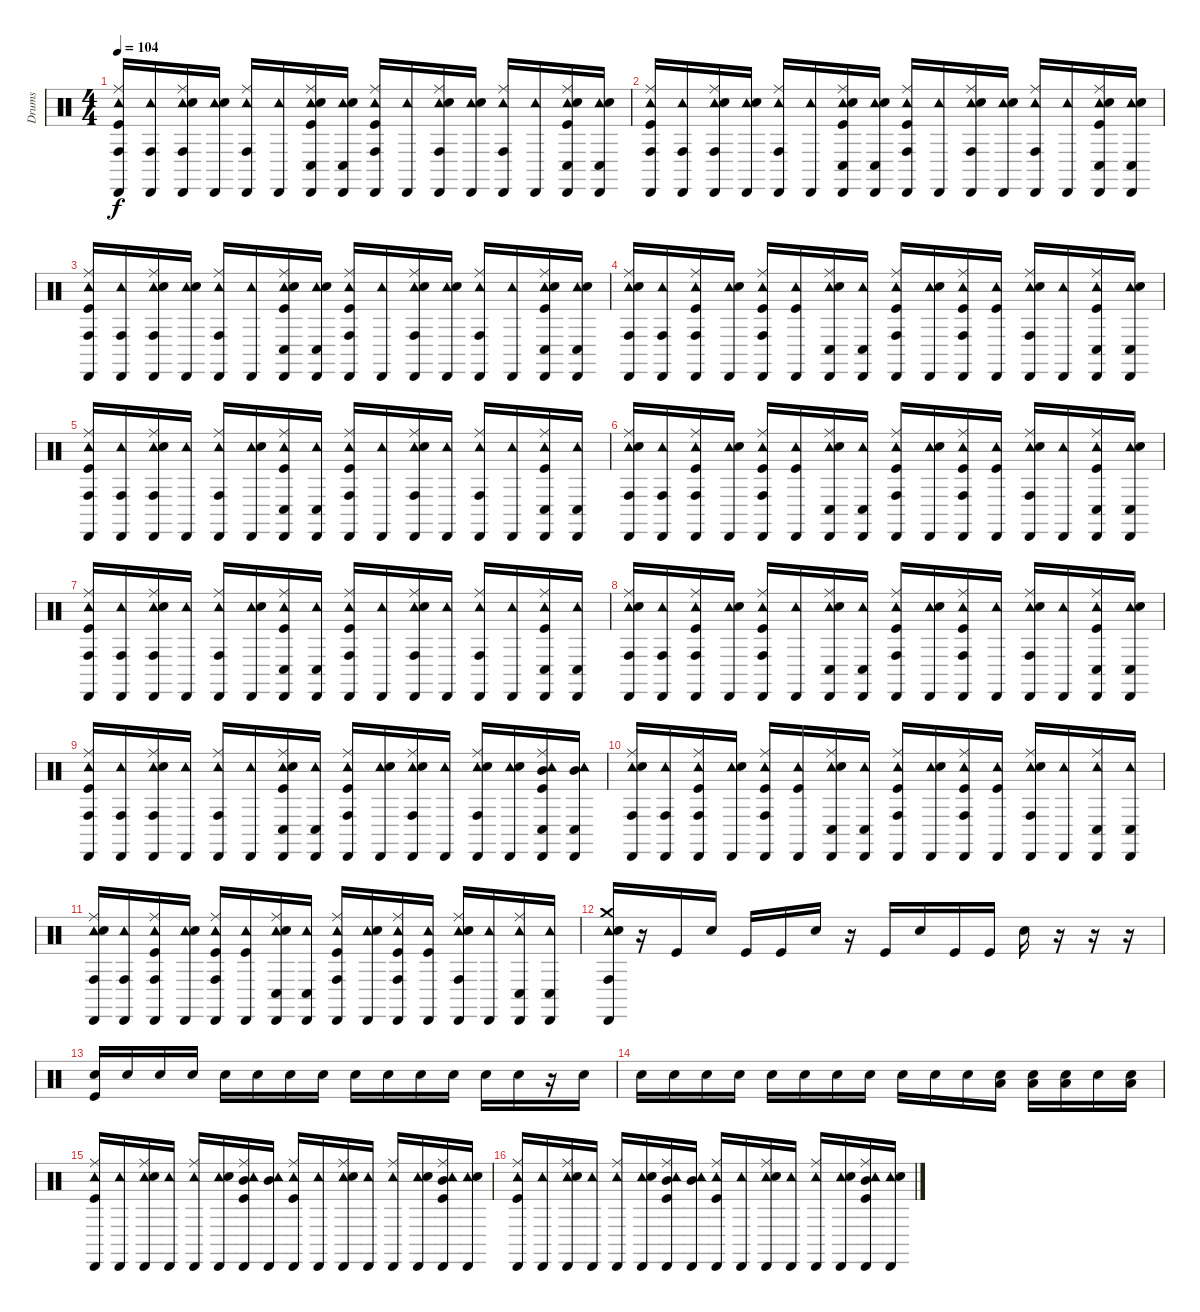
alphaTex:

\track ("Drums" "Drums") {instrument percussion}
\staff {score}
\articulation defaults
\ts (4 4)
\tempo 104
\clef neutral
\ks c
("Cabasa (hit)" "Conga high (hit)" "Tambourine (hit)" "Ride (middle)" "Kick (hit)").16{dy f} ("Cabasa (hit)" "Conga high (hit)" "Tambourine (hit)").16 ("Cabasa (hit)" "Conga high (hit)" "Tambourine (hit)" "Ride (middle)" "Electric Snare (hit)").16 ("Cabasa (hit)" "Tambourine (hit)" "Electric Snare (hit)").16 ("Cabasa (hit)" "Conga high (hit)" "Tambourine (hit)" "Ride (middle)").16 ("Cabasa (hit)" "Tambourine (hit)").16 ("Cabasa (hit)" "Conga low (hit)" "Tambourine (hit)" "Ride (middle)" "Electric Snare (hit)" "Kick (hit)").16 ("Cabasa (hit)" "Conga low (hit)" "Tambourine (hit)" "Electric Snare (hit)").16 ("Cabasa (hit)" "Conga high (hit)" "Tambourine (hit)" "Ride (middle)" "Kick (hit)").16 ("Cabasa (hit)" "Tambourine (hit)").16 ("Cabasa (hit)" "Conga high (hit)" "Tambourine (hit)" "Ride (middle)" "Electric Snare (hit)").16 ("Cabasa (hit)" "Tambourine (hit)" "Electric Snare (hit)").16 ("Cabasa (hit)" "Conga high (hit)" "Tambourine (hit)" "Ride (middle)").16 ("Cabasa (hit)" "Tambourine (hit)").16 ("Cabasa (hit)" "Conga low (hit)" "Tambourine (hit)" "Ride (middle)" "Electric Snare (hit)" "Kick (hit)").16 ("Cabasa (hit)" "Conga low (hit)" "Tambourine (hit)" "Electric Snare (hit)").16 |
("Cabasa (hit)" "Conga high (hit)" "Tambourine (hit)" "Ride (middle)" "Kick (hit)").16 ("Cabasa (hit)" "Conga high (hit)" "Tambourine (hit)").16 ("Cabasa (hit)" "Conga high (hit)" "Tambourine (hit)" "Ride (middle)" "Electric Snare (hit)").16 ("Cabasa (hit)" "Tambourine (hit)" "Electric Snare (hit)").16 ("Cabasa (hit)" "Conga high (hit)" "Tambourine (hit)" "Ride (middle)").16 ("Cabasa (hit)" "Tambourine (hit)").16 ("Cabasa (hit)" "Conga low (hit)" "Tambourine (hit)" "Ride (middle)" "Electric Snare (hit)" "Kick (hit)").16 ("Cabasa (hit)" "Conga low (hit)" "Tambourine (hit)" "Electric Snare (hit)").16 ("Cabasa (hit)" "Conga high (hit)" "Tambourine (hit)" "Ride (middle)" "Kick (hit)").16 ("Cabasa (hit)" "Tambourine (hit)").16 ("Cabasa (hit)" "Conga high (hit)" "Tambourine (hit)" "Ride (middle)" "Electric Snare (hit)").16 ("Cabasa (hit)" "Tambourine (hit)" "Electric Snare (hit)").16 ("Cabasa (hit)" "Conga high (hit)" "Tambourine (hit)" "Ride (middle)").16 ("Cabasa (hit)" "Tambourine (hit)").16 ("Cabasa (hit)" "Conga low (hit)" "Tambourine (hit)" "Ride (middle)" "Electric Snare (hit)" "Kick (hit)").16 ("Cabasa (hit)" "Conga low (hit)" "Tambourine (hit)" "Electric Snare (hit)").16 |
("Cabasa (hit)" "Conga high (hit)" "Tambourine (hit)" "Ride (middle)" "Kick (hit)").16 ("Cabasa (hit)" "Conga high (hit)" "Tambourine (hit)").16 ("Cabasa (hit)" "Conga high (hit)" "Tambourine (hit)" "Ride (middle)" "Electric Snare (hit)").16 ("Cabasa (hit)" "Tambourine (hit)" "Electric Snare (hit)").16 ("Cabasa (hit)" "Conga high (hit)" "Tambourine (hit)" "Ride (middle)").16 ("Cabasa (hit)" "Tambourine (hit)").16 ("Cabasa (hit)" "Conga low (hit)" "Tambourine (hit)" "Ride (middle)" "Electric Snare (hit)" "Kick (hit)").16 ("Cabasa (hit)" "Conga low (hit)" "Tambourine (hit)" "Electric Snare (hit)").16 ("Cabasa (hit)" "Conga high (hit)" "Tambourine (hit)" "Ride (middle)" "Kick (hit)").16 ("Cabasa (hit)" "Tambourine (hit)").16 ("Cabasa (hit)" "Conga high (hit)" "Tambourine (hit)" "Ride (middle)" "Electric Snare (hit)").16 ("Cabasa (hit)" "Tambourine (hit)" "Electric Snare (hit)").16 ("Cabasa (hit)" "Conga high (hit)" "Tambourine (hit)" "Ride (middle)").16 ("Cabasa (hit)" "Tambourine (hit)").16 ("Cabasa (hit)" "Conga low (hit)" "Tambourine (hit)" "Ride (middle)" "Electric Snare (hit)" "Kick (hit)").16 ("Cabasa (hit)" "Conga low (hit)" "Tambourine (hit)" "Electric Snare (hit)").16 |
("Cabasa (hit)" "Conga high (hit)" "Tambourine (hit)" "Ride (middle)" "Electric Snare (hit)").16 ("Cabasa (hit)" "Conga high (hit)" "Tambourine (hit)").16 ("Cabasa (hit)" "Conga high (hit)" "Tambourine (hit)" "Ride (middle)" "Kick (hit)").16 ("Cabasa (hit)" "Tambourine (hit)" "Electric Snare (hit)").16 ("Cabasa (hit)" "Conga high (hit)" "Tambourine (hit)" "Ride (middle)" "Kick (hit)").16 ("Cabasa (hit)" "Tambourine (hit)" "Kick (hit)").16 ("Cabasa (hit)" "Conga low (hit)" "Tambourine (hit)" "Ride (middle)" "Electric Snare (hit)").16 ("Cabasa (hit)" "Conga low (hit)" "Tambourine (hit)").16 ("Cabasa (hit)" "Conga high (hit)" "Tambourine (hit)" "Ride (middle)" "Kick (hit)").16 ("Cabasa (hit)" "Tambourine (hit)" "Electric Snare (hit)").16 ("Cabasa (hit)" "Conga high (hit)" "Tambourine (hit)" "Ride (middle)" "Kick (hit)").16 ("Cabasa (hit)" "Tambourine (hit)" "Kick (hit)").16 ("Cabasa (hit)" "Conga high (hit)" "Tambourine (hit)" "Ride (middle)" "Electric Snare (hit)").16 ("Cabasa (hit)" "Tambourine (hit)").16 ("Cabasa (hit)" "Conga low (hit)" "Tambourine (hit)" "Ride (middle)" "Kick (hit)").16 ("Cabasa (hit)" "Conga low (hit)" "Tambourine (hit)" "Electric Snare (hit)").16 |
("Cabasa (hit)" "Conga high (hit)" "Tambourine (hit)" "Ride (middle)" "Kick (hit)").16 ("Cabasa (hit)" "Conga high (hit)" "Tambourine (hit)").16 ("Cabasa (hit)" "Conga high (hit)" "Tambourine (hit)" "Ride (middle)" "Electric Snare (hit)").16 ("Cabasa (hit)" "Tambourine (hit)").16 ("Cabasa (hit)" "Conga high (hit)" "Tambourine (hit)" "Ride (middle)").16 ("Cabasa (hit)" "Tambourine (hit)" "Electric Snare (hit)").16 ("Cabasa (hit)" "Conga low (hit)" "Tambourine (hit)" "Ride (middle)" "Kick (hit)").16 ("Cabasa (hit)" "Conga low (hit)" "Tambourine (hit)").16 ("Cabasa (hit)" "Conga high (hit)" "Tambourine (hit)" "Ride (middle)" "Kick (hit)").16 ("Cabasa (hit)" "Tambourine (hit)").16 ("Cabasa (hit)" "Conga high (hit)" "Tambourine (hit)" "Ride (middle)" "Electric Snare (hit)").16 ("Cabasa (hit)" "Tambourine (hit)").16 ("Cabasa (hit)" "Conga high (hit)" "Tambourine (hit)" "Ride (middle)").16 ("Cabasa (hit)" "Tambourine (hit)").16 ("Cabasa (hit)" "Conga low (hit)" "Tambourine (hit)" "Ride (middle)" "Kick (hit)").16 ("Cabasa (hit)" "Conga low (hit)" "Tambourine (hit)").16 |
("Cabasa (hit)" "Conga high (hit)" "Tambourine (hit)" "Ride (middle)" "Electric Snare (hit)").16 ("Cabasa (hit)" "Conga high (hit)" "Tambourine (hit)").16 ("Cabasa (hit)" "Conga high (hit)" "Tambourine (hit)" "Ride (middle)" "Kick (hit)").16 ("Cabasa (hit)" "Tambourine (hit)" "Electric Snare (hit)").16 ("Cabasa (hit)" "Conga high (hit)" "Tambourine (hit)" "Ride (middle)" "Kick (hit)").16 ("Cabasa (hit)" "Tambourine (hit)" "Kick (hit)").16 ("Cabasa (hit)" "Conga low (hit)" "Tambourine (hit)" "Ride (middle)" "Electric Snare (hit)").16 ("Cabasa (hit)" "Conga low (hit)" "Tambourine (hit)").16 ("Cabasa (hit)" "Conga high (hit)" "Tambourine (hit)" "Ride (middle)" "Kick (hit)").16 ("Cabasa (hit)" "Tambourine (hit)" "Electric Snare (hit)").16 ("Cabasa (hit)" "Conga high (hit)" "Tambourine (hit)" "Ride (middle)" "Kick (hit)").16 ("Cabasa (hit)" "Tambourine (hit)" "Kick (hit)").16 ("Cabasa (hit)" "Conga high (hit)" "Tambourine (hit)" "Ride (middle)" "Electric Snare (hit)").16 ("Cabasa (hit)" "Tambourine (hit)").16 ("Cabasa (hit)" "Conga low (hit)" "Tambourine (hit)" "Ride (middle)" "Kick (hit)").16 ("Cabasa (hit)" "Conga low (hit)" "Tambourine (hit)" "Electric Snare (hit)").16 |
("Cabasa (hit)" "Conga high (hit)" "Tambourine (hit)" "Ride (middle)" "Kick (hit)").16 ("Cabasa (hit)" "Conga high (hit)" "Tambourine (hit)").16 ("Cabasa (hit)" "Conga high (hit)" "Tambourine (hit)" "Ride (middle)" "Electric Snare (hit)").16 ("Cabasa (hit)" "Tambourine (hit)").16 ("Cabasa (hit)" "Conga high (hit)" "Tambourine (hit)" "Ride (middle)").16 ("Cabasa (hit)" "Tambourine (hit)" "Electric Snare (hit)").16 ("Cabasa (hit)" "Conga low (hit)" "Tambourine (hit)" "Ride (middle)" "Kick (hit)").16 ("Cabasa (hit)" "Conga low (hit)" "Tambourine (hit)").16 ("Cabasa (hit)" "Conga high (hit)" "Tambourine (hit)" "Ride (middle)" "Kick (hit)").16 ("Cabasa (hit)" "Tambourine (hit)").16 ("Cabasa (hit)" "Conga high (hit)" "Tambourine (hit)" "Ride (middle)" "Electric Snare (hit)").16 ("Cabasa (hit)" "Tambourine (hit)").16 ("Cabasa (hit)" "Conga high (hit)" "Tambourine (hit)" "Ride (middle)").16 ("Cabasa (hit)" "Tambourine (hit)").16 ("Cabasa (hit)" "Conga low (hit)" "Tambourine (hit)" "Ride (middle)" "Kick (hit)").16 ("Cabasa (hit)" "Conga low (hit)" "Tambourine (hit)").16 |
("Cabasa (hit)" "Conga high (hit)" "Tambourine (hit)" "Ride (middle)" "Electric Snare (hit)").16 ("Cabasa (hit)" "Conga high (hit)" "Tambourine (hit)").16 ("Cabasa (hit)" "Conga high (hit)" "Tambourine (hit)" "Ride (middle)" "Kick (hit)").16 ("Cabasa (hit)" "Tambourine (hit)" "Electric Snare (hit)").16 ("Cabasa (hit)" "Conga high (hit)" "Tambourine (hit)" "Ride (middle)" "Kick (hit)").16 ("Cabasa (hit)" "Tambourine (hit)").16 ("Cabasa (hit)" "Conga low (hit)" "Tambourine (hit)" "Ride (middle)" "Electric Snare (hit)").16 ("Cabasa (hit)" "Conga low (hit)" "Tambourine (hit)").16 ("Cabasa (hit)" "Conga high (hit)" "Tambourine (hit)" "Ride (middle)" "Kick (hit)").16 ("Cabasa (hit)" "Tambourine (hit)" "Electric Snare (hit)").16 ("Cabasa (hit)" "Conga high (hit)" "Tambourine (hit)" "Ride (middle)" "Kick (hit)").16 ("Cabasa (hit)" "Tambourine (hit)").16 ("Cabasa (hit)" "Conga high (hit)" "Tambourine (hit)" "Ride (middle)" "Electric Snare (hit)").16 ("Cabasa (hit)" "Tambourine (hit)").16 ("Cabasa (hit)" "Conga low (hit)" "Tambourine (hit)" "Ride (middle)" "Kick (hit)").16 ("Cabasa (hit)" "Conga low (hit)" "Tambourine (hit)" "Electric Snare (hit)").16 |
("Cabasa (hit)" "Conga high (hit)" "Tambourine (hit)" "Ride (middle)" "Kick (hit)").16 ("Cabasa (hit)" "Conga high (hit)" "Tambourine (hit)").16 ("Cabasa (hit)" "Conga high (hit)" "Tambourine (hit)" "Ride (middle)" "Electric Snare (hit)").16 ("Cabasa (hit)" "Tambourine (hit)").16 ("Cabasa (hit)" "Conga high (hit)" "Tambourine (hit)" "Ride (middle)").16 ("Cabasa (hit)" "Tambourine (hit)").16 ("Cabasa (hit)" "Conga low (hit)" "Tambourine (hit)" "Ride (middle)" "Electric Snare (hit)" "Kick (hit)").16 ("Cabasa (hit)" "Conga low (hit)" "Tambourine (hit)").16 ("Cabasa (hit)" "Conga high (hit)" "Tambourine (hit)" "Ride (middle)" "Kick (hit)").16 ("Cabasa (hit)" "Tambourine (hit)" "Electric Snare (hit)").16 ("Cabasa (hit)" "Conga high (hit)" "Tambourine (hit)" "Ride (middle)" "Electric Snare (hit)").16 ("Cabasa (hit)" "Tambourine (hit)").16 ("Cabasa (hit)" "Conga high (hit)" "Tambourine (hit)" "Ride (middle)" "Electric Snare (hit)").16 ("Cabasa (hit)" "Tambourine (hit)" "Electric Snare (hit)").16 ("Cabasa (hit)" "Conga low (hit)" "Tambourine (hit)" "Ride (middle)" "Mid Tom (hit)" "Kick (hit)").16 ("Cabasa (hit)" "Conga low (hit)" "Tambourine (hit)" "Mid Tom (hit)").16 |
("Cabasa (hit)" "Conga high (hit)" "Tambourine (hit)" "Ride (middle)" "Electric Snare (hit)").16 ("Cabasa (hit)" "Conga high (hit)" "Tambourine (hit)").16 ("Cabasa (hit)" "Conga high (hit)" "Tambourine (hit)" "Ride (middle)" "Kick (hit)").16 ("Cabasa (hit)" "Tambourine (hit)" "Electric Snare (hit)").16 ("Cabasa (hit)" "Conga high (hit)" "Tambourine (hit)" "Ride (middle)" "Kick (hit)").16 ("Cabasa (hit)" "Tambourine (hit)" "Kick (hit)").16 ("Cabasa (hit)" "Conga low (hit)" "Tambourine (hit)" "Ride (middle)" "Electric Snare (hit)").16 ("Cabasa (hit)" "Conga low (hit)" "Tambourine (hit)").16 ("Cabasa (hit)" "Conga high (hit)" "Tambourine (hit)" "Ride (middle)" "Kick (hit)").16 ("Cabasa (hit)" "Tambourine (hit)" "Electric Snare (hit)").16 ("Cabasa (hit)" "Conga high (hit)" "Tambourine (hit)" "Ride (middle)" "Kick (hit)").16 ("Cabasa (hit)" "Tambourine (hit)" "Kick (hit)").16 ("Cabasa (hit)" "Conga high (hit)" "Tambourine (hit)" "Ride (middle)" "Electric Snare (hit)").16 ("Cabasa (hit)" "Tambourine (hit)").16 ("Cabasa (hit)" "Conga low (hit)" "Tambourine (hit)" "Ride (middle)").16 ("Cabasa (hit)" "Conga low (hit)" "Tambourine (hit)").16 |
("Cabasa (hit)" "Conga high (hit)" "Tambourine (hit)" "Ride (middle)" "Electric Snare (hit)").16 ("Cabasa (hit)" "Conga high (hit)" "Tambourine (hit)").16 ("Cabasa (hit)" "Conga high (hit)" "Tambourine (hit)" "Ride (middle)" "Kick (hit)").16 ("Cabasa (hit)" "Tambourine (hit)" "Electric Snare (hit)").16 ("Cabasa (hit)" "Conga high (hit)" "Tambourine (hit)" "Ride (middle)" "Kick (hit)").16 ("Cabasa (hit)" "Tambourine (hit)" "Kick (hit)").16 ("Cabasa (hit)" "Conga low (hit)" "Tambourine (hit)" "Ride (middle)" "Electric Snare (hit)").16 ("Cabasa (hit)" "Conga low (hit)" "Tambourine (hit)").16 ("Cabasa (hit)" "Conga high (hit)" "Tambourine (hit)" "Ride (middle)" "Kick (hit)").16 ("Cabasa (hit)" "Tambourine (hit)" "Electric Snare (hit)").16 ("Cabasa (hit)" "Conga high (hit)" "Tambourine (hit)" "Ride (middle)" "Kick (hit)").16 ("Cabasa (hit)" "Tambourine (hit)" "Kick (hit)").16 ("Cabasa (hit)" "Conga high (hit)" "Tambourine (hit)" "Ride (middle)" "Electric Snare (hit)").16 ("Cabasa (hit)" "Tambourine (hit)").16 ("Cabasa (hit)" "Conga low (hit)" "Tambourine (hit)" "Ride (middle)").16 ("Cabasa (hit)" "Conga low (hit)" "Tambourine (hit)").16 |
("Cabasa (hit)" "Conga high (hit)" "Tambourine (hit)" "Crash medium (hit)" "Electric Snare (hit)").16 r.16 "Kick (hit)".16 "Electric Snare (hit)".16 "Kick (hit)".16 "Kick (hit)".16 "Electric Snare (hit)".16 r.16 "Kick (hit)".16 "Electric Snare (hit)".16 "Kick (hit)".16 "Kick (hit)".16 "Electric Snare (hit)".16 r.16 r.16 r.16 |
("Electric Snare (hit)" "Kick (hit)").16 "Electric Snare (hit)".16 "Electric Snare (hit)".16 "Electric Snare (hit)".16 "Electric Snare (hit)".16 "Electric Snare (hit)".16 "Electric Snare (hit)".16 "Electric Snare (hit)".16 "Electric Snare (hit)".16 "Electric Snare (hit)".16 "Electric Snare (hit)".16 "Electric Snare (hit)".16 "Electric Snare (hit)".16 "Electric Snare (hit)".16 r.16 "Electric Snare (hit)".16 |
"Electric Snare (hit)".16 "Electric Snare (hit)".16 "Electric Snare (hit)".16 "Electric Snare (hit)".16 "Electric Snare (hit)".16 "Electric Snare (hit)".16 "Electric Snare (hit)".16 "Electric Snare (hit)".16 "Electric Snare (hit)".16 "Electric Snare (hit)".16 "Electric Snare (hit)".16 ("Low Tom (hit)" "Electric Snare (hit)").16 ("Low Tom (hit)" "Electric Snare (hit)").16 ("Low Tom (hit)" "Electric Snare (hit)").16 "Electric Snare (hit)".16 ("Low Tom (hit)" "Electric Snare (hit)").16 |
("Cabasa (hit)" "Ride (middle)" "Tambourine (hit)" "Kick (hit)").16 ("Cabasa (hit)" "Tambourine (hit)").16 ("Cabasa (hit)" "Ride (middle)" "Tambourine (hit)" "Electric Snare (hit)").16 ("Cabasa (hit)" "Tambourine (hit)").16 ("Cabasa (hit)" "Ride (middle)" "Tambourine (hit)").16 ("Cabasa (hit)" "Tambourine (hit)" "Electric Snare (hit)").16 ("Cabasa (hit)" "Ride (middle)" "Tambourine (hit)" "Mid Tom (hit)" "Kick (hit)").16 ("Cabasa (hit)" "Tambourine (hit)" "Mid Tom (hit)").16 ("Cabasa (hit)" "Ride (middle)" "Tambourine (hit)" "Kick (hit)").16 ("Cabasa (hit)" "Tambourine (hit)").16 ("Cabasa (hit)" "Ride (middle)" "Tambourine (hit)" "Electric Snare (hit)").16 ("Cabasa (hit)" "Tambourine (hit)").16 ("Cabasa (hit)" "Ride (middle)" "Tambourine (hit)").16 ("Cabasa (hit)" "Tambourine (hit)" "Electric Snare (hit)").16 ("Cabasa (hit)" "Ride (middle)" "Tambourine (hit)" "Mid Tom (hit)" "Kick (hit)").16 ("Cabasa (hit)" "Tambourine (hit)" "Electric Snare (hit)").16 |
("Cabasa (hit)" "Ride (middle)" "Tambourine (hit)" "Kick (hit)").16 ("Cabasa (hit)" "Tambourine (hit)").16 ("Cabasa (hit)" "Ride (middle)" "Tambourine (hit)" "Electric Snare (hit)").16 ("Cabasa (hit)" "Tambourine (hit)").16 ("Cabasa (hit)" "Ride (middle)" "Tambourine (hit)").16 ("Cabasa (hit)" "Tambourine (hit)" "Electric Snare (hit)").16 ("Cabasa (hit)" "Ride (middle)" "Tambourine (hit)" "Mid Tom (hit)" "Kick (hit)").16 ("Cabasa (hit)" "Tambourine (hit)" "Mid Tom (hit)").16 ("Cabasa (hit)" "Ride (middle)" "Tambourine (hit)" "Kick (hit)").16 ("Cabasa (hit)" "Tambourine (hit)").16 ("Cabasa (hit)" "Ride (middle)" "Tambourine (hit)" "Electric Snare (hit)").16 ("Cabasa (hit)" "Tambourine (hit)").16 ("Cabasa (hit)" "Ride (middle)" "Tambourine (hit)").16 ("Cabasa (hit)" "Tambourine (hit)" "Electric Snare (hit)").16 ("Cabasa (hit)" "Ride (middle)" "Tambourine (hit)" "Mid Tom (hit)" "Kick (hit)").16 ("Cabasa (hit)" "Tambourine (hit)" "Electric Snare (hit)").16
